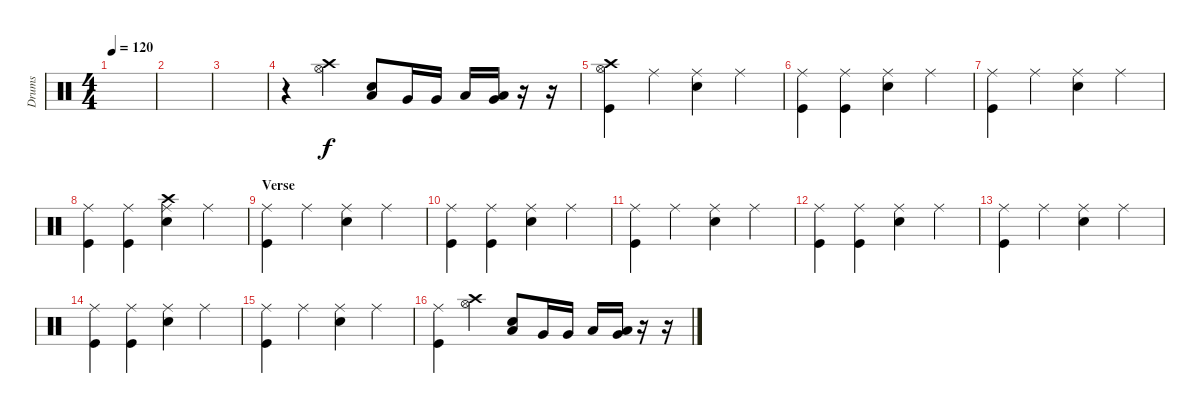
\track ("Drums" "Drums") {instrument percussion}
\staff {score}
\articulation defaults
\ts (4 4)
\tempo 120
\clef neutral
\ks c
|
|
|
r.4 ("Crash high (hit)" "Hi-Hat (open)").4 ("Low Tom (hit)" "Electric Snare (hit)").8 "Very Low Tom (hit)".16 "Very Low Tom (hit)".16 "Low Floor Tom (hit)".16 ("Low Tom (hit)" "Very Low Tom (hit)").16 r.16 r.16 |
("Crash high (hit)" "Hi-Hat (open)" "Kick (hit)").4 "Ride (middle)".4 ("Ride (middle)" "Electric Snare (hit)").4 "Ride (middle)".4 |
("Ride (middle)" "Kick (hit)").4 ("Ride (middle)" "Kick (hit)").4 ("Ride (middle)" "Electric Snare (hit)").4 "Ride (middle)".4 |
("Ride (middle)" "Kick (hit)").4 "Ride (middle)".4 ("Ride (middle)" "Electric Snare (hit)").4 "Ride (middle)".4 |
("Ride (middle)" "Kick (hit)").4 ("Ride (middle)" "Kick (hit)").4 ("Ride (middle)" "Crash high (hit)" "Electric Snare (hit)").4 "Ride (middle)".4 |
\section ("" "Verse")
("Ride (middle)" "Kick (hit)").4 "Ride (middle)".4 ("Ride (middle)" "Electric Snare (hit)").4 "Ride (middle)".4 |
("Ride (middle)" "Kick (hit)").4 ("Ride (middle)" "Kick (hit)").4 ("Ride (middle)" "Electric Snare (hit)").4 "Ride (middle)".4 |
("Ride (middle)" "Kick (hit)").4 "Ride (middle)".4 ("Ride (middle)" "Electric Snare (hit)").4 "Ride (middle)".4 |
("Ride (middle)" "Kick (hit)").4 ("Ride (middle)" "Kick (hit)").4 ("Ride (middle)" "Electric Snare (hit)").4 "Ride (middle)".4 |
("Ride (middle)" "Kick (hit)").4 "Ride (middle)".4 ("Ride (middle)" "Electric Snare (hit)").4 "Ride (middle)".4 |
("Ride (middle)" "Kick (hit)").4 ("Ride (middle)" "Kick (hit)").4 ("Ride (middle)" "Electric Snare (hit)").4 "Ride (middle)".4 |
("Ride (middle)" "Kick (hit)").4 "Ride (middle)".4 ("Ride (middle)" "Electric Snare (hit)").4 "Ride (middle)".4 |
("Ride (middle)" "Kick (hit)").4 ("Crash high (hit)" "Hi-Hat (open)").4 ("Low Tom (hit)" "Electric Snare (hit)").8 "Very Low Tom (hit)".16 "Very Low Tom (hit)".16 "Low Floor Tom (hit)".16 ("Low Tom (hit)" "Very Low Tom (hit)").16 r.16 r.16
